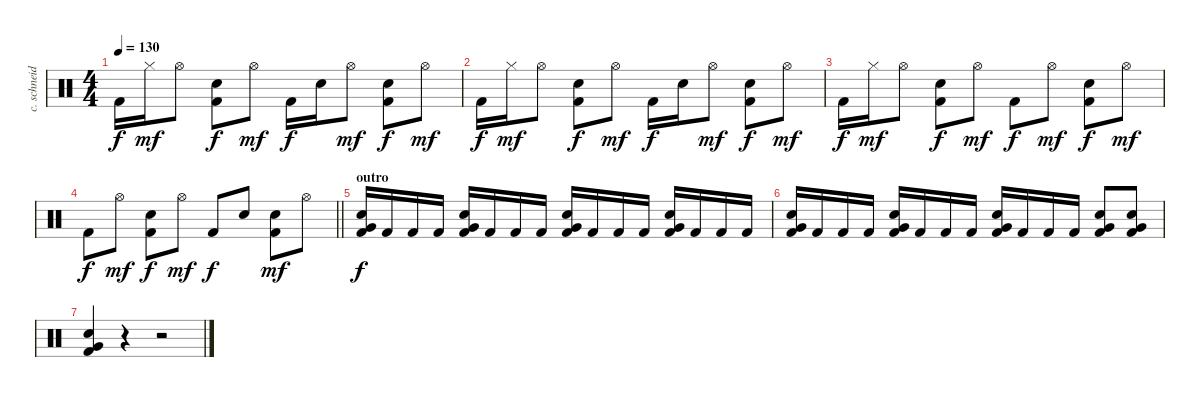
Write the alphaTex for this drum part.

\track ("c. schneider - drums" "c. schneid") {instrument percussion}
\staff {score}
\articulation defaults
\ts (4 4)
\tempo 130
\clef neutral
\ks c "Kick (hit) 2".16{dy f} "Hi-Hat (closed)".16{dy mf} "Hi-Hat (open)".8
("Electric Snare (hit)" "Kick (hit) 2").8{dy f} "Hi-Hat (open)".8{dy mf} "Kick (hit) 2".16{dy f} "Electric Snare (hit)".16 "Hi-Hat (open)".8{dy mf} ("Electric Snare (hit)" "Kick (hit) 2").8{dy f} "Hi-Hat (open)".8{dy mf} |
"Kick (hit) 2".16{dy f} "Hi-Hat (closed)".16{dy mf} "Hi-Hat (open)".8 ("Electric Snare (hit)" "Kick (hit) 2").8{dy f} "Hi-Hat (open)".8{dy mf} "Kick (hit) 2".16{dy f} "Electric Snare (hit)".16 "Hi-Hat (open)".8{dy mf} ("Electric Snare (hit)" "Kick (hit) 2").8{dy f} "Hi-Hat (open)".8{dy mf} |
"Kick (hit) 2".16{dy f} "Hi-Hat (closed)".16{dy mf} "Hi-Hat (open)".8 ("Electric Snare (hit)" "Kick (hit) 2").8{dy f} "Hi-Hat (open)".8{dy mf} "Kick (hit) 2".8{dy f} "Hi-Hat (open)".8{dy mf} ("Electric Snare (hit)" "Kick (hit) 2").8{dy f} "Hi-Hat (open)".8{dy mf} |
\barLineRight lightlight "Kick (hit) 2".8{dy f} "Hi-Hat (open)".8{dy mf}
("Electric Snare (hit)" "Kick (hit) 2").8{dy f} "Hi-Hat (open)".8{dy mf} "Kick (hit) 2".8{dy f} "Electric Snare (hit)".8 ("Electric Snare (hit)" "Kick (hit) 2").8{dy mf} "Hi-Hat (open)".8 |
\section ("" "outro")
("Electric Snare (hit)" "Very Low Tom (hit)" "Kick (hit) 2").16{dy f} "Kick (hit) 2".16 "Kick (hit) 2".16 "Kick (hit) 2".16 ("Electric Snare (hit)" "Very Low Tom (hit)" "Kick (hit) 2").16 "Kick (hit) 2".16 "Kick (hit) 2".16 "Kick (hit) 2".16 ("Electric Snare (hit)" "Very Low Tom (hit)" "Kick (hit) 2").16 "Kick (hit) 2".16 "Kick (hit) 2".16 "Kick (hit) 2".16 ("Electric Snare (hit)" "Very Low Tom (hit)" "Kick (hit) 2").16 "Kick (hit) 2".16 "Kick (hit) 2".16 "Kick (hit) 2".16 |
("Electric Snare (hit)" "Very Low Tom (hit)" "Kick (hit) 2").16 "Kick (hit) 2".16 "Kick (hit) 2".16 "Kick (hit) 2".16 ("Electric Snare (hit)" "Very Low Tom (hit)" "Kick (hit) 2").16 "Kick (hit) 2".16 "Kick (hit) 2".16 "Kick (hit) 2".16 ("Electric Snare (hit)" "Very Low Tom (hit)" "Kick (hit) 2").16 "Kick (hit) 2".16 "Kick (hit) 2".16 "Kick (hit) 2".16 ("Electric Snare (hit)" "Very Low Tom (hit)" "Kick (hit) 2").8 ("Electric Snare (hit)" "Very Low Tom (hit)" "Kick (hit) 2").8 |
("Electric Snare (hit)" "Very Low Tom (hit)" "Kick (hit) 2").4 r.4 r.2
